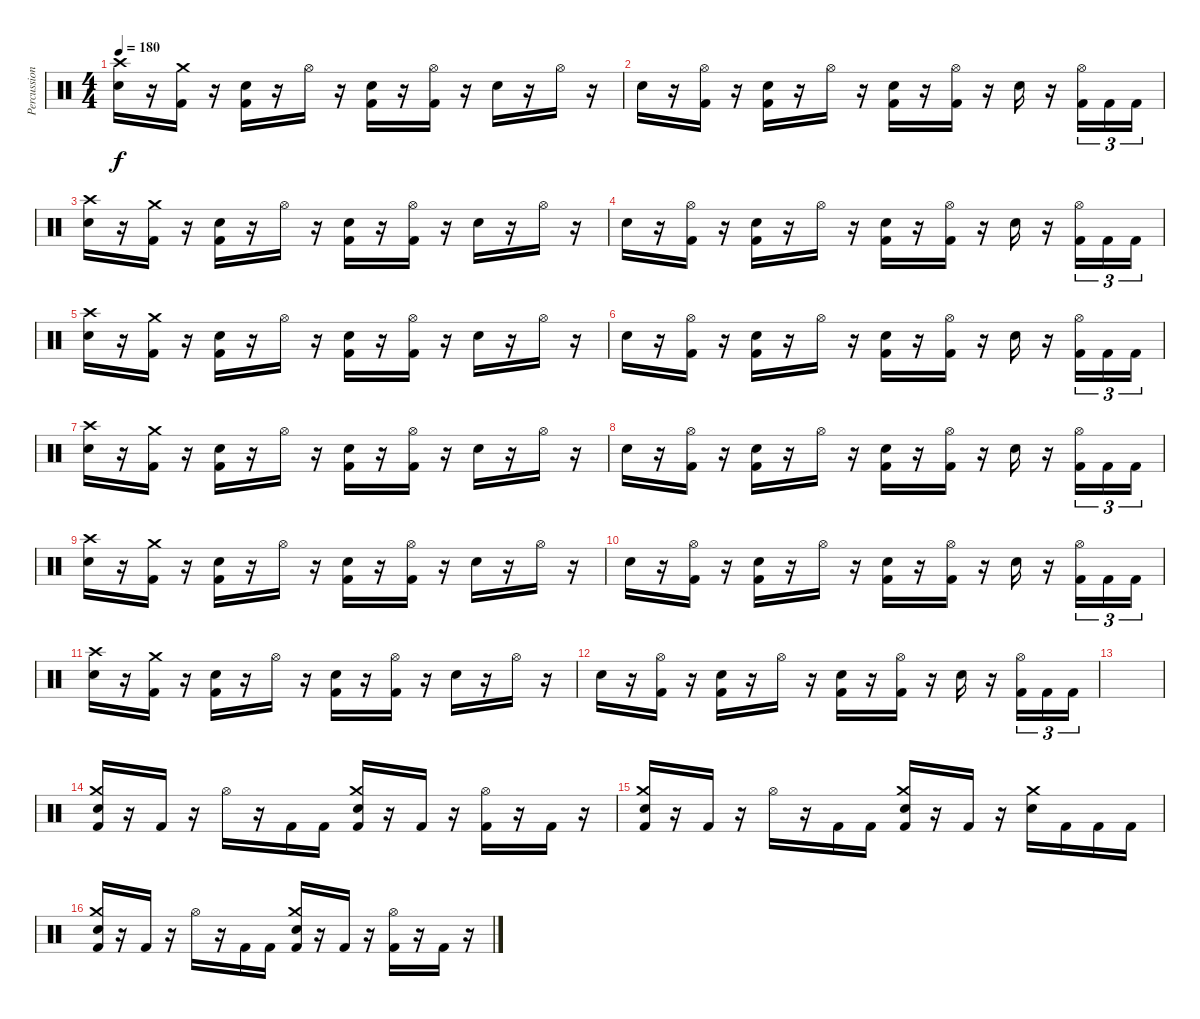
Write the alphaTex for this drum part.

\track ("Percussions" "Percussion") {instrument percussion}
\staff {score}
\articulation defaults
\ts (4 4)
\tempo 180
\clef neutral
\ks c
("Crash high (hit)" "Snare (hit) 2").16{dy f} r.16 ("Crash medium (hit)" "Kick (hit) 2").16 r.16 ("Snare (hit) 2" "Kick (hit) 2").16 r.16 "Hi-Hat (open)".16 r.16 ("Snare (hit) 2" "Kick (hit) 2").16 r.16 ("Hi-Hat (open)" "Kick (hit) 2").16 r.16 "Snare (hit) 2".16 r.16 "Hi-Hat (open)".16 r.16 |
"Snare (hit) 2".16 r.16 ("Hi-Hat (open)" "Kick (hit) 2").16 r.16 ("Snare (hit) 2" "Kick (hit) 2").16 r.16 "Hi-Hat (open)".16 r.16 ("Snare (hit) 2" "Kick (hit) 2").16 r.16 ("Hi-Hat (open)" "Kick (hit) 2").16 r.16 "Snare (hit) 2".16 r.16 ("Hi-Hat (open)" "Kick (hit) 2").16{tu (3 2)} "Kick (hit) 2".16{tu (3 2)} "Kick (hit) 2".16{tu (3 2)} |
("Crash high (hit)" "Snare (hit) 2").16 r.16 ("Crash medium (hit)" "Kick (hit) 2").16 r.16 ("Snare (hit) 2" "Kick (hit) 2").16 r.16 "Hi-Hat (open)".16 r.16 ("Snare (hit) 2" "Kick (hit) 2").16 r.16 ("Hi-Hat (open)" "Kick (hit) 2").16 r.16 "Snare (hit) 2".16 r.16 "Hi-Hat (open)".16 r.16 |
"Snare (hit) 2".16 r.16 ("Hi-Hat (open)" "Kick (hit) 2").16 r.16 ("Snare (hit) 2" "Kick (hit) 2").16 r.16 "Hi-Hat (open)".16 r.16 ("Snare (hit) 2" "Kick (hit) 2").16 r.16 ("Hi-Hat (open)" "Kick (hit) 2").16 r.16 "Snare (hit) 2".16 r.16 ("Hi-Hat (open)" "Kick (hit) 2").16{tu (3 2)} "Kick (hit) 2".16{tu (3 2)} "Kick (hit) 2".16{tu (3 2)} |
("Crash high (hit)" "Snare (hit) 2").16 r.16 ("Crash medium (hit)" "Kick (hit) 2").16 r.16 ("Snare (hit) 2" "Kick (hit) 2").16 r.16 "Hi-Hat (open)".16 r.16 ("Snare (hit) 2" "Kick (hit) 2").16 r.16 ("Hi-Hat (open)" "Kick (hit) 2").16 r.16 "Snare (hit) 2".16 r.16 "Hi-Hat (open)".16 r.16 |
"Snare (hit) 2".16 r.16 ("Hi-Hat (open)" "Kick (hit) 2").16 r.16 ("Snare (hit) 2" "Kick (hit) 2").16 r.16 "Hi-Hat (open)".16 r.16 ("Snare (hit) 2" "Kick (hit) 2").16 r.16 ("Hi-Hat (open)" "Kick (hit) 2").16 r.16 "Snare (hit) 2".16 r.16 ("Hi-Hat (open)" "Kick (hit) 2").16{tu (3 2)} "Kick (hit) 2".16{tu (3 2)} "Kick (hit) 2".16{tu (3 2)} |
("Crash high (hit)" "Snare (hit) 2").16 r.16 ("Crash medium (hit)" "Kick (hit) 2").16 r.16 ("Snare (hit) 2" "Kick (hit) 2").16 r.16 "Hi-Hat (open)".16 r.16 ("Snare (hit) 2" "Kick (hit) 2").16 r.16 ("Hi-Hat (open)" "Kick (hit) 2").16 r.16 "Snare (hit) 2".16 r.16 "Hi-Hat (open)".16 r.16 |
"Snare (hit) 2".16 r.16 ("Hi-Hat (open)" "Kick (hit) 2").16 r.16 ("Snare (hit) 2" "Kick (hit) 2").16 r.16 "Hi-Hat (open)".16 r.16 ("Snare (hit) 2" "Kick (hit) 2").16 r.16 ("Hi-Hat (open)" "Kick (hit) 2").16 r.16 "Snare (hit) 2".16 r.16 ("Hi-Hat (open)" "Kick (hit) 2").16{tu (3 2)} "Kick (hit) 2".16{tu (3 2)} "Kick (hit) 2".16{tu (3 2)} |
("Crash high (hit)" "Snare (hit) 2").16 r.16 ("Crash medium (hit)" "Kick (hit) 2").16 r.16 ("Snare (hit) 2" "Kick (hit) 2").16 r.16 "Hi-Hat (open)".16 r.16 ("Snare (hit) 2" "Kick (hit) 2").16 r.16 ("Hi-Hat (open)" "Kick (hit) 2").16 r.16 "Snare (hit) 2".16 r.16 "Hi-Hat (open)".16 r.16 |
"Snare (hit) 2".16 r.16 ("Hi-Hat (open)" "Kick (hit) 2").16 r.16 ("Snare (hit) 2" "Kick (hit) 2").16 r.16 "Hi-Hat (open)".16 r.16 ("Snare (hit) 2" "Kick (hit) 2").16 r.16 ("Hi-Hat (open)" "Kick (hit) 2").16 r.16 "Snare (hit) 2".16 r.16 ("Hi-Hat (open)" "Kick (hit) 2").16{tu (3 2)} "Kick (hit) 2".16{tu (3 2)} "Kick (hit) 2".16{tu (3 2)} |
("Crash high (hit)" "Snare (hit) 2").16 r.16 ("Crash medium (hit)" "Kick (hit) 2").16 r.16 ("Snare (hit) 2" "Kick (hit) 2").16 r.16 "Hi-Hat (open)".16 r.16 ("Snare (hit) 2" "Kick (hit) 2").16 r.16 ("Hi-Hat (open)" "Kick (hit) 2").16 r.16 "Snare (hit) 2".16 r.16 "Hi-Hat (open)".16 r.16 |
"Snare (hit) 2".16 r.16 ("Hi-Hat (open)" "Kick (hit) 2").16 r.16 ("Snare (hit) 2" "Kick (hit) 2").16 r.16 "Hi-Hat (open)".16 r.16 ("Snare (hit) 2" "Kick (hit) 2").16 r.16 ("Hi-Hat (open)" "Kick (hit) 2").16 r.16 "Snare (hit) 2".16 r.16 ("Hi-Hat (open)" "Kick (hit) 2").16{tu (3 2)} "Kick (hit) 2".16{tu (3 2)} "Kick (hit) 2".16{tu (3 2)} |
|
("Kick (hit) 2" "Snare (hit) 2" "Crash medium (hit)").16 r.16 "Kick (hit) 2".16 r.16 "Hi-Hat (open)".16 r.16 "Kick (hit) 2".16 "Kick (hit) 2".16 ("Kick (hit) 2" "Snare (hit) 2" "Crash medium (hit)").16 r.16 "Kick (hit) 2".16 r.16 ("Kick (hit) 2" "Hi-Hat (open)").16 r.16 "Kick (hit) 2".16 r.16 |
("Kick (hit) 2" "Snare (hit) 2" "Crash medium (hit)").16 r.16 "Kick (hit) 2".16 r.16 "Hi-Hat (open)".16 r.16 "Kick (hit) 2".16 "Kick (hit) 2".16 ("Kick (hit) 2" "Snare (hit) 2" "Crash medium (hit)").16 r.16 "Kick (hit) 2".16 r.16 ("Snare (hit) 2" "Crash medium (hit)").16 "Kick (hit) 2".16 "Kick (hit) 2".16 "Kick (hit) 2".16 |
("Kick (hit) 2" "Snare (hit) 2" "Crash medium (hit)").16 r.16 "Kick (hit) 2".16 r.16 "Hi-Hat (open)".16 r.16 "Kick (hit) 2".16 "Kick (hit) 2".16 ("Kick (hit) 2" "Snare (hit) 2" "Crash medium (hit)").16 r.16 "Kick (hit) 2".16 r.16 ("Kick (hit) 2" "Hi-Hat (open)").16 r.16 "Kick (hit) 2".16 r.16
